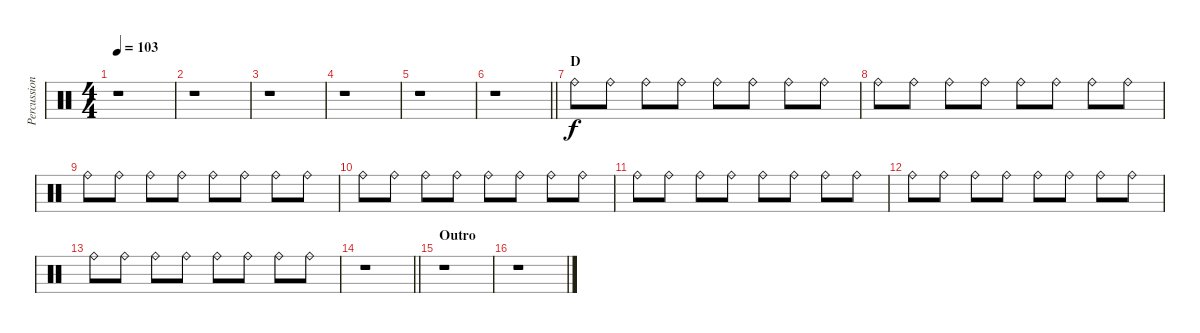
\track ("Percussion" "Percussion") {instrument percussion}
\staff {score}
\articulation defaults
\ts (4 4)
\tempo 103
\clef neutral
\ks c
r.1{dy f} |
r.1 |
r.1 |
r.1 |
r.1 |
\barLineRight lightlight
r.1 |
\section ("" "D")
"Ride (bell)".8 "Ride (bell)".8 "Ride (bell)".8 "Ride (bell)".8 "Ride (bell)".8 "Ride (bell)".8 "Ride (bell)".8 "Ride (bell)".8 |
"Ride (bell)".8 "Ride (bell)".8 "Ride (bell)".8 "Ride (bell)".8 "Ride (bell)".8 "Ride (bell)".8 "Ride (bell)".8 "Ride (bell)".8 |
"Ride (bell)".8 "Ride (bell)".8 "Ride (bell)".8 "Ride (bell)".8 "Ride (bell)".8 "Ride (bell)".8 "Ride (bell)".8 "Ride (bell)".8 |
"Ride (bell)".8 "Ride (bell)".8 "Ride (bell)".8 "Ride (bell)".8 "Ride (bell)".8 "Ride (bell)".8 "Ride (bell)".8 "Ride (bell)".8 |
"Ride (bell)".8 "Ride (bell)".8 "Ride (bell)".8 "Ride (bell)".8 "Ride (bell)".8 "Ride (bell)".8 "Ride (bell)".8 "Ride (bell)".8 |
"Ride (bell)".8 "Ride (bell)".8 "Ride (bell)".8 "Ride (bell)".8 "Ride (bell)".8 "Ride (bell)".8 "Ride (bell)".8 "Ride (bell)".8 |
"Ride (bell)".8 "Ride (bell)".8 "Ride (bell)".8 "Ride (bell)".8 "Ride (bell)".8 "Ride (bell)".8 "Ride (bell)".8 "Ride (bell)".8 |
\barLineRight lightlight
r.1 |
\section ("" "Outro")
r.1 |
r.1
